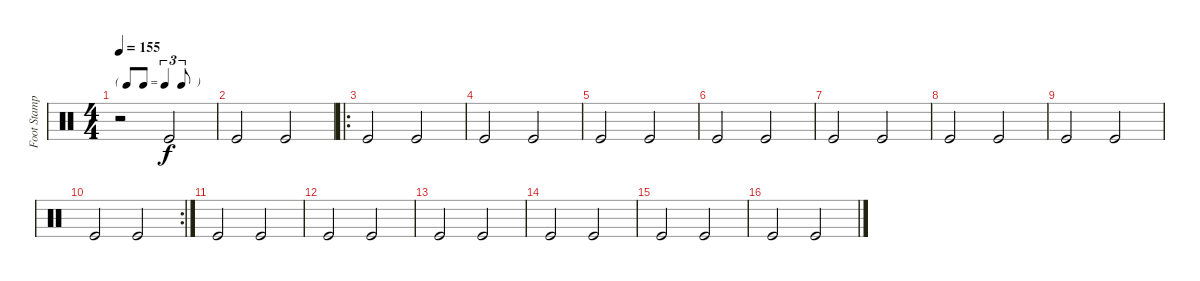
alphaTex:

\track ("Foot Stamp" "Foot Stamp") {instrument percussion}
\staff {score}
\articulation defaults
\ts (4 4)
\tf triplet8th
\tempo 155
\clef neutral
\ks c
r.2{dy f} "Kick (hit)".2 |
"Kick (hit)".2 "Kick (hit)".2 |
\ro "Kick (hit)".2 "Kick (hit)".2
|
"Kick (hit)".2 "Kick (hit)".2 |
"Kick (hit)".2 "Kick (hit)".2 |
"Kick (hit)".2 "Kick (hit)".2 |
"Kick (hit)".2 "Kick (hit)".2 |
"Kick (hit)".2 "Kick (hit)".2 |
"Kick (hit)".2 "Kick (hit)".2 |
\rc 2 "Kick (hit)".2 "Kick (hit)".2
|
"Kick (hit)".2 "Kick (hit)".2 |
"Kick (hit)".2 "Kick (hit)".2 |
"Kick (hit)".2 "Kick (hit)".2 |
"Kick (hit)".2 "Kick (hit)".2 |
"Kick (hit)".2 "Kick (hit)".2 |
"Kick (hit)".2 "Kick (hit)".2
